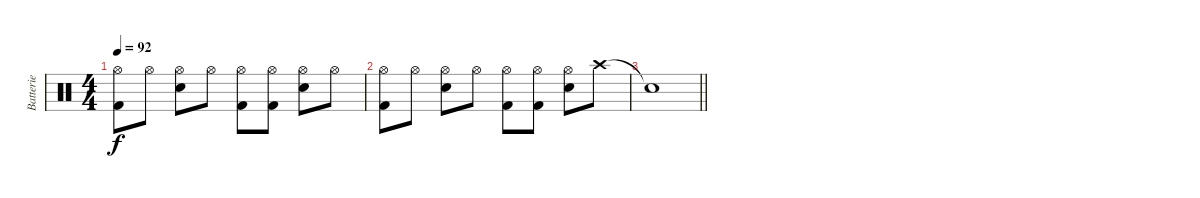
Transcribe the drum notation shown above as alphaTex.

\track ("Batterie" "Batterie") {instrument percussion}
\staff {score}
\articulation defaults
\ts (4 4)
\tempo 92
\clef neutral
\ks c
("Hi-Hat (open)" "Kick (hit) 2").8{dy f} "Hi-Hat (open)".8 ("Hi-Hat (open)" "Electric Snare (hit)").8 "Hi-Hat (open)".8 ("Hi-Hat (open)" "Kick (hit) 2").8 ("Hi-Hat (open)" "Kick (hit) 2").8 ("Hi-Hat (open)" "Electric Snare (hit)").8 "Hi-Hat (open)".8 |
("Hi-Hat (open)" "Kick (hit) 2").8 "Hi-Hat (open)".8 ("Hi-Hat (open)" "Electric Snare (hit)").8 "Hi-Hat (open)".8 ("Hi-Hat (open)" "Kick (hit) 2").8 ("Hi-Hat (open)" "Kick (hit) 2").8 ("Hi-Hat (open)" "Electric Snare (hit)").8 "Crash high (hit)".8 |
\barLineRight lightlight "Snare (hit)"{t}.1
